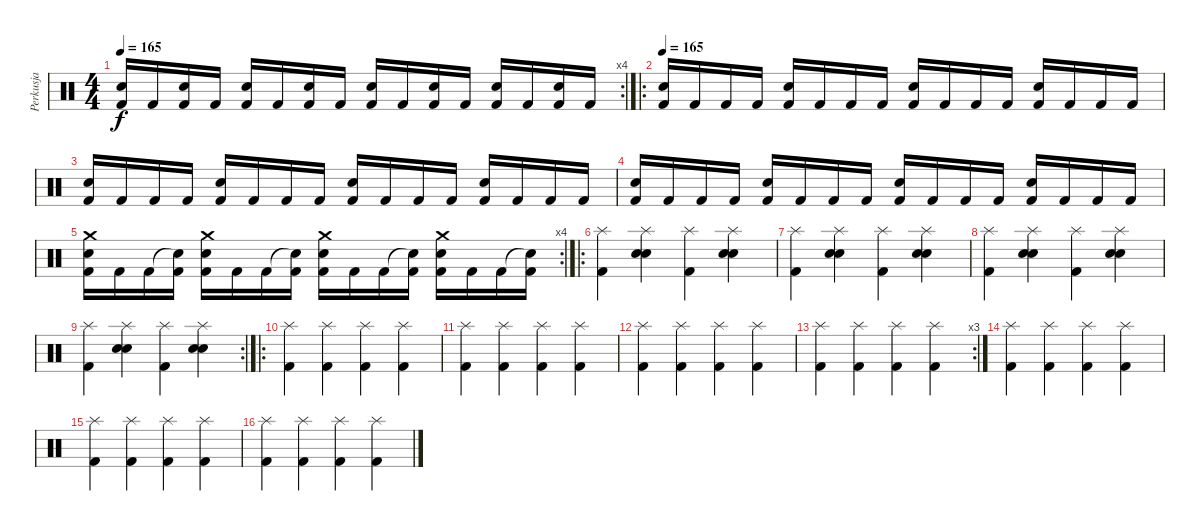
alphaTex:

\track ("Perkusja" "Perkusja") {instrument percussion}
\staff {score}
\articulation defaults
\rc 4
\ts (4 4)
\tempo 165
\clef neutral
\ks c
("Snare (hit) 2" "Kick (hit) 2").16{dy f} "Kick (hit) 2".16 ("Snare (hit) 2" "Kick (hit) 2").16 "Kick (hit) 2".16 ("Snare (hit) 2" "Kick (hit) 2").16 "Kick (hit) 2".16 ("Snare (hit) 2" "Kick (hit) 2").16 "Kick (hit) 2".16 ("Snare (hit) 2" "Kick (hit) 2").16 "Kick (hit) 2".16 ("Snare (hit) 2" "Kick (hit) 2").16 "Kick (hit) 2".16 ("Snare (hit) 2" "Kick (hit) 2").16 "Kick (hit) 2".16 ("Snare (hit) 2" "Kick (hit) 2").16 "Kick (hit) 2".16 |
\ro
\tempo 165
("Snare (hit) 2" "Kick (hit) 2").16 "Kick (hit) 2".16 "Kick (hit) 2".16 "Kick (hit) 2".16 ("Electric Snare (hit)" "Kick (hit) 2").16 "Kick (hit) 2".16 "Kick (hit) 2".16 "Kick (hit) 2".16 ("Snare (hit) 2" "Kick (hit) 2").16 "Kick (hit) 2".16 "Kick (hit) 2".16 "Kick (hit) 2".16 ("Electric Snare (hit)" "Kick (hit) 2").16 "Kick (hit) 2".16 "Kick (hit) 2".16 "Kick (hit) 2".16 |
("Snare (hit) 2" "Kick (hit) 2").16 "Kick (hit) 2".16 "Kick (hit) 2".16 "Kick (hit) 2".16 ("Electric Snare (hit)" "Kick (hit) 2").16 "Kick (hit) 2".16 "Kick (hit) 2".16 "Kick (hit) 2".16 ("Snare (hit) 2" "Kick (hit) 2").16 "Kick (hit) 2".16 "Kick (hit) 2".16 "Kick (hit) 2".16 ("Electric Snare (hit)" "Kick (hit) 2").16 "Kick (hit) 2".16 "Kick (hit) 2".16 "Kick (hit) 2".16 |
("Snare (hit) 2" "Kick (hit) 2").16 "Kick (hit) 2".16 "Kick (hit) 2".16 "Kick (hit) 2".16 ("Electric Snare (hit)" "Kick (hit) 2").16 "Kick (hit) 2".16 "Kick (hit) 2".16 "Kick (hit) 2".16 ("Snare (hit) 2" "Kick (hit) 2").16 "Kick (hit) 2".16 "Kick (hit) 2".16 "Kick (hit) 2".16 ("Electric Snare (hit)" "Kick (hit) 2").16 "Kick (hit) 2".16 "Kick (hit) 2".16 "Kick (hit) 2".16 |
\rc 4
("Crash medium (hit)" "Snare (hit) 2" "Kick (hit) 2").16 "Kick (hit) 2".16 "Kick (hit) 2".16 ("Snare (hit)"{t} "Kick (hit) 2").16 ("Crash medium (hit)" "Electric Snare (hit)" "Kick (hit) 2").16 "Kick (hit) 2".16 "Kick (hit) 2".16 ("Snare (hit)"{t} "Kick (hit) 2").16 ("Crash medium (hit)" "Snare (hit) 2" "Kick (hit) 2").16 "Kick (hit) 2".16 "Kick (hit) 2".16 ("Snare (hit)"{t} "Kick (hit) 2").16 ("Crash medium (hit)" "Electric Snare (hit)" "Kick (hit) 2").16 "Kick (hit) 2".16 "Kick (hit) 2".16 ("Snare (hit)"{t} "Kick (hit) 2").16 |
\ro
("Splash (hit)" "Kick (hit) 2").4 ("Splash (hit)" "Snare (hit) 2" "Snare (hit) 2").4 ("Splash (hit)" "Kick (hit) 2").4 ("Splash (hit)" "Snare (hit) 2" "Snare (hit) 2").4 |
("Splash (hit)" "Kick (hit) 2").4 ("Splash (hit)" "Snare (hit) 2" "Snare (hit) 2").4 ("Splash (hit)" "Kick (hit) 2").4 ("Splash (hit)" "Snare (hit) 2" "Snare (hit) 2").4 |
("Splash (hit)" "Kick (hit) 2").4 ("Splash (hit)" "Snare (hit) 2" "Snare (hit) 2").4 ("Splash (hit)" "Kick (hit) 2").4 ("Splash (hit)" "Snare (hit) 2" "Snare (hit) 2").4 |
\rc 2
("Splash (hit)" "Kick (hit) 2").4 ("Splash (hit)" "Snare (hit) 2" "Snare (hit) 2").4 ("Splash (hit)" "Kick (hit) 2").4 ("Splash (hit)" "Snare (hit) 2" "Snare (hit) 2").4 |
\ro
("Splash (hit)" "Kick (hit) 2").4 ("Splash (hit)" "Kick (hit) 2").4 ("Splash (hit)" "Kick (hit) 2").4 ("Splash (hit)" "Kick (hit) 2").4 |
("Splash (hit)" "Kick (hit) 2").4 ("Splash (hit)" "Kick (hit) 2").4 ("Splash (hit)" "Kick (hit) 2").4 ("Splash (hit)" "Kick (hit) 2").4 |
("Splash (hit)" "Kick (hit) 2").4 ("Splash (hit)" "Kick (hit) 2").4 ("Splash (hit)" "Kick (hit) 2").4 ("Splash (hit)" "Kick (hit) 2").4 |
\rc 3
("Splash (hit)" "Kick (hit) 2").4 ("Splash (hit)" "Kick (hit) 2").4 ("Splash (hit)" "Kick (hit) 2").4 ("Splash (hit)" "Kick (hit) 2").4 |
("Splash (hit)" "Kick (hit) 2").4 ("Splash (hit)" "Kick (hit) 2").4 ("Splash (hit)" "Kick (hit) 2").4 ("Splash (hit)" "Kick (hit) 2").4 |
("Splash (hit)" "Kick (hit) 2").4 ("Splash (hit)" "Kick (hit) 2").4 ("Splash (hit)" "Kick (hit) 2").4 ("Splash (hit)" "Kick (hit) 2").4 |
("Splash (hit)" "Kick (hit) 2").4 ("Splash (hit)" "Kick (hit) 2").4 ("Splash (hit)" "Kick (hit) 2").4 ("Splash (hit)" "Kick (hit) 2").4
